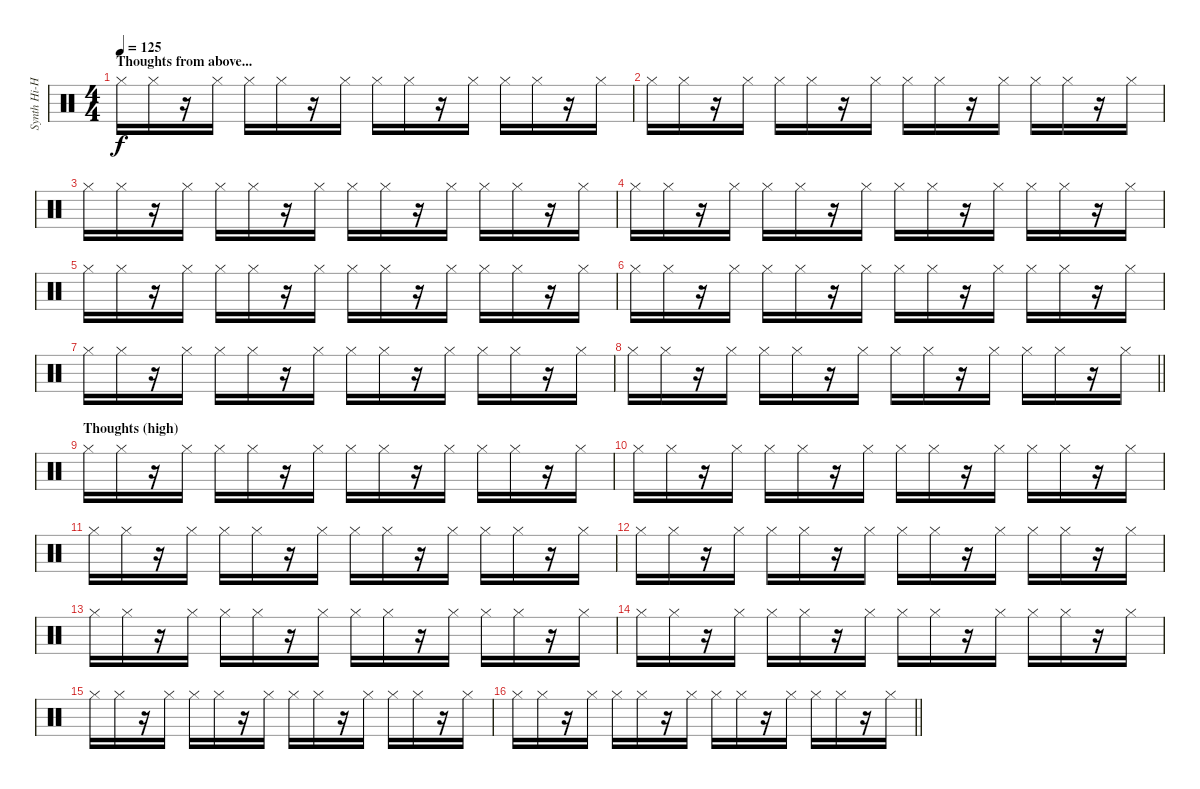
\track ("Synth Hi-Hat (Gillian Gilbert)" "Synth Hi-H") {instrument percussion}
\staff {score}
\articulation defaults
\ts (4 4)
\section ("" "Thoughts from above...")
\tempo 125
\clef neutral
\ks c "Hi-Hat (closed)".16{dy f} "Hi-Hat (closed)".16
r.16 "Hi-Hat (closed)".16 "Hi-Hat (closed)".16 "Hi-Hat (closed)".16 r.16 "Hi-Hat (closed)".16 "Hi-Hat (closed)".16 "Hi-Hat (closed)".16 r.16 "Hi-Hat (closed)".16 "Hi-Hat (closed)".16 "Hi-Hat (closed)".16 r.16 "Hi-Hat (closed)".16 |
"Hi-Hat (closed)".16 "Hi-Hat (closed)".16 r.16 "Hi-Hat (closed)".16 "Hi-Hat (closed)".16 "Hi-Hat (closed)".16 r.16 "Hi-Hat (closed)".16 "Hi-Hat (closed)".16 "Hi-Hat (closed)".16 r.16 "Hi-Hat (closed)".16 "Hi-Hat (closed)".16 "Hi-Hat (closed)".16 r.16 "Hi-Hat (closed)".16 |
"Hi-Hat (closed)".16 "Hi-Hat (closed)".16 r.16 "Hi-Hat (closed)".16 "Hi-Hat (closed)".16 "Hi-Hat (closed)".16 r.16 "Hi-Hat (closed)".16 "Hi-Hat (closed)".16 "Hi-Hat (closed)".16 r.16 "Hi-Hat (closed)".16 "Hi-Hat (closed)".16 "Hi-Hat (closed)".16 r.16 "Hi-Hat (closed)".16 |
"Hi-Hat (closed)".16 "Hi-Hat (closed)".16 r.16 "Hi-Hat (closed)".16 "Hi-Hat (closed)".16 "Hi-Hat (closed)".16 r.16 "Hi-Hat (closed)".16 "Hi-Hat (closed)".16 "Hi-Hat (closed)".16 r.16 "Hi-Hat (closed)".16 "Hi-Hat (closed)".16 "Hi-Hat (closed)".16 r.16 "Hi-Hat (closed)".16 |
"Hi-Hat (closed)".16 "Hi-Hat (closed)".16 r.16 "Hi-Hat (closed)".16 "Hi-Hat (closed)".16 "Hi-Hat (closed)".16 r.16 "Hi-Hat (closed)".16 "Hi-Hat (closed)".16 "Hi-Hat (closed)".16 r.16 "Hi-Hat (closed)".16 "Hi-Hat (closed)".16 "Hi-Hat (closed)".16 r.16 "Hi-Hat (closed)".16 |
"Hi-Hat (closed)".16 "Hi-Hat (closed)".16 r.16 "Hi-Hat (closed)".16 "Hi-Hat (closed)".16 "Hi-Hat (closed)".16 r.16 "Hi-Hat (closed)".16 "Hi-Hat (closed)".16 "Hi-Hat (closed)".16 r.16 "Hi-Hat (closed)".16 "Hi-Hat (closed)".16 "Hi-Hat (closed)".16 r.16 "Hi-Hat (closed)".16 |
"Hi-Hat (closed)".16 "Hi-Hat (closed)".16 r.16 "Hi-Hat (closed)".16 "Hi-Hat (closed)".16 "Hi-Hat (closed)".16 r.16 "Hi-Hat (closed)".16 "Hi-Hat (closed)".16 "Hi-Hat (closed)".16 r.16 "Hi-Hat (closed)".16 "Hi-Hat (closed)".16 "Hi-Hat (closed)".16 r.16 "Hi-Hat (closed)".16 |
\barLineRight lightlight "Hi-Hat (closed)".16 "Hi-Hat (closed)".16
r.16 "Hi-Hat (closed)".16 "Hi-Hat (closed)".16 "Hi-Hat (closed)".16 r.16 "Hi-Hat (closed)".16 "Hi-Hat (closed)".16 "Hi-Hat (closed)".16 r.16 "Hi-Hat (closed)".16 "Hi-Hat (closed)".16 "Hi-Hat (closed)".16 r.16 "Hi-Hat (closed)".16 |
\section ("" "Thoughts (high)")
"Hi-Hat (closed)".16 "Hi-Hat (closed)".16 r.16 "Hi-Hat (closed)".16 "Hi-Hat (closed)".16 "Hi-Hat (closed)".16 r.16 "Hi-Hat (closed)".16 "Hi-Hat (closed)".16 "Hi-Hat (closed)".16 r.16 "Hi-Hat (closed)".16 "Hi-Hat (closed)".16 "Hi-Hat (closed)".16 r.16 "Hi-Hat (closed)".16 |
"Hi-Hat (closed)".16 "Hi-Hat (closed)".16 r.16 "Hi-Hat (closed)".16 "Hi-Hat (closed)".16 "Hi-Hat (closed)".16 r.16 "Hi-Hat (closed)".16 "Hi-Hat (closed)".16 "Hi-Hat (closed)".16 r.16 "Hi-Hat (closed)".16 "Hi-Hat (closed)".16 "Hi-Hat (closed)".16 r.16 "Hi-Hat (closed)".16 |
"Hi-Hat (closed)".16 "Hi-Hat (closed)".16 r.16 "Hi-Hat (closed)".16 "Hi-Hat (closed)".16 "Hi-Hat (closed)".16 r.16 "Hi-Hat (closed)".16 "Hi-Hat (closed)".16 "Hi-Hat (closed)".16 r.16 "Hi-Hat (closed)".16 "Hi-Hat (closed)".16 "Hi-Hat (closed)".16 r.16 "Hi-Hat (closed)".16 |
"Hi-Hat (closed)".16 "Hi-Hat (closed)".16 r.16 "Hi-Hat (closed)".16 "Hi-Hat (closed)".16 "Hi-Hat (closed)".16 r.16 "Hi-Hat (closed)".16 "Hi-Hat (closed)".16 "Hi-Hat (closed)".16 r.16 "Hi-Hat (closed)".16 "Hi-Hat (closed)".16 "Hi-Hat (closed)".16 r.16 "Hi-Hat (closed)".16 |
"Hi-Hat (closed)".16 "Hi-Hat (closed)".16 r.16 "Hi-Hat (closed)".16 "Hi-Hat (closed)".16 "Hi-Hat (closed)".16 r.16 "Hi-Hat (closed)".16 "Hi-Hat (closed)".16 "Hi-Hat (closed)".16 r.16 "Hi-Hat (closed)".16 "Hi-Hat (closed)".16 "Hi-Hat (closed)".16 r.16 "Hi-Hat (closed)".16 |
"Hi-Hat (closed)".16 "Hi-Hat (closed)".16 r.16 "Hi-Hat (closed)".16 "Hi-Hat (closed)".16 "Hi-Hat (closed)".16 r.16 "Hi-Hat (closed)".16 "Hi-Hat (closed)".16 "Hi-Hat (closed)".16 r.16 "Hi-Hat (closed)".16 "Hi-Hat (closed)".16 "Hi-Hat (closed)".16 r.16 "Hi-Hat (closed)".16 |
"Hi-Hat (closed)".16 "Hi-Hat (closed)".16 r.16 "Hi-Hat (closed)".16 "Hi-Hat (closed)".16 "Hi-Hat (closed)".16 r.16 "Hi-Hat (closed)".16 "Hi-Hat (closed)".16 "Hi-Hat (closed)".16 r.16 "Hi-Hat (closed)".16 "Hi-Hat (closed)".16 "Hi-Hat (closed)".16 r.16 "Hi-Hat (closed)".16 |
\barLineRight lightlight "Hi-Hat (closed)".16 "Hi-Hat (closed)".16
r.16 "Hi-Hat (closed)".16 "Hi-Hat (closed)".16 "Hi-Hat (closed)".16 r.16 "Hi-Hat (closed)".16 "Hi-Hat (closed)".16 "Hi-Hat (closed)".16 r.16 "Hi-Hat (closed)".16 "Hi-Hat (closed)".16 "Hi-Hat (closed)".16 r.16 "Hi-Hat (closed)".16
